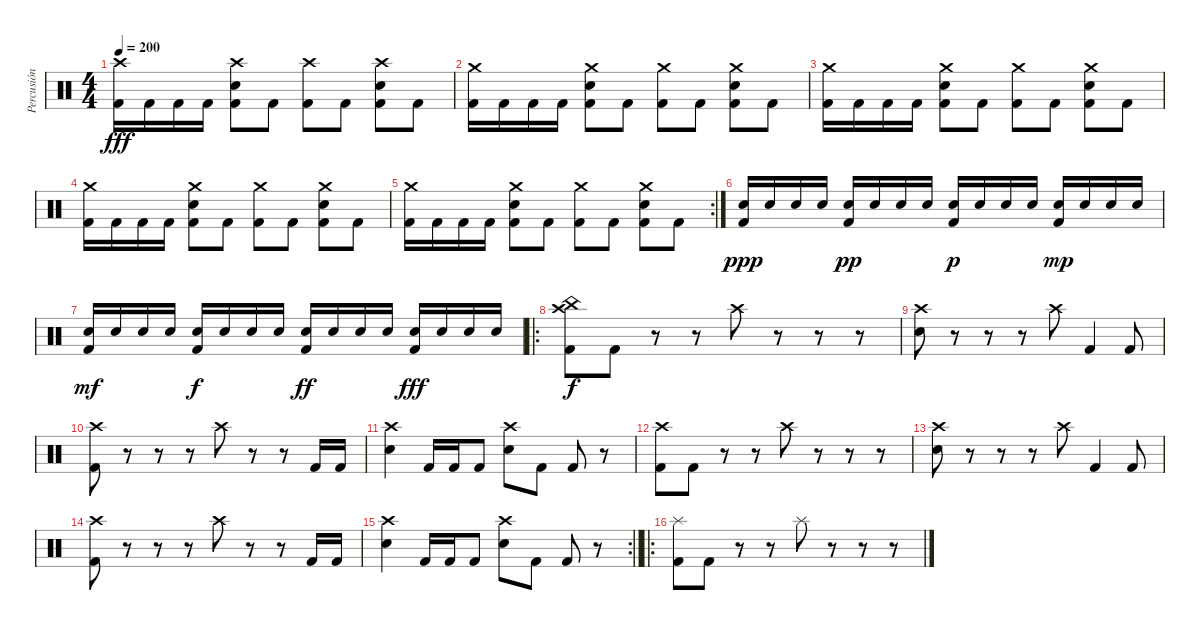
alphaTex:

\track ("Percusión" "Percusión") {instrument percussion}
\staff {score}
\articulation defaults
\ts (4 4)
\tempo 200
\clef neutral
\ks c
("Crash high (hit)" "Kick (hit) 2").16{dy fff} "Kick (hit) 2".16 "Kick (hit) 2".16 "Kick (hit) 2".16 ("Crash high (hit)" "Snare (hit) 2" "Kick (hit) 2").8 "Kick (hit) 2".8 ("Crash high (hit)" "Kick (hit) 2").8 "Kick (hit) 2".8 ("Crash high (hit)" "Snare (hit) 2" "Kick (hit) 2").8 "Kick (hit) 2".8 |
("Crash medium (hit)" "Kick (hit) 2").16 "Kick (hit) 2".16 "Kick (hit) 2".16 "Kick (hit) 2".16 ("Crash medium (hit)" "Snare (hit) 2" "Kick (hit) 2").8 "Kick (hit) 2".8 ("Crash medium (hit)" "Kick (hit) 2").8 "Kick (hit) 2".8 ("Crash medium (hit)" "Snare (hit) 2" "Kick (hit) 2").8 "Kick (hit) 2".8 |
("Crash medium (hit)" "Kick (hit) 2").16 "Kick (hit) 2".16 "Kick (hit) 2".16 "Kick (hit) 2".16 ("Crash medium (hit)" "Snare (hit) 2" "Kick (hit) 2").8 "Kick (hit) 2".8 ("Crash medium (hit)" "Kick (hit) 2").8 "Kick (hit) 2".8 ("Crash medium (hit)" "Snare (hit) 2" "Kick (hit) 2").8 "Kick (hit) 2".8 |
("Crash medium (hit)" "Kick (hit) 2").16 "Kick (hit) 2".16 "Kick (hit) 2".16 "Kick (hit) 2".16 ("Crash medium (hit)" "Snare (hit) 2" "Kick (hit) 2").8 "Kick (hit) 2".8 ("Crash medium (hit)" "Kick (hit) 2").8 "Kick (hit) 2".8 ("Crash medium (hit)" "Snare (hit) 2" "Kick (hit) 2").8 "Kick (hit) 2".8 |
\rc 2
("Crash medium (hit)" "Kick (hit) 2").16 "Kick (hit) 2".16 "Kick (hit) 2".16 "Kick (hit) 2".16 ("Crash medium (hit)" "Snare (hit) 2" "Kick (hit) 2").8 "Kick (hit) 2".8 ("Crash medium (hit)" "Kick (hit) 2").8 "Kick (hit) 2".8 ("Crash medium (hit)" "Snare (hit) 2" "Kick (hit) 2").8 "Kick (hit) 2".8 |
("Electric Snare (hit)" "Kick (hit) 2").16{dy ppp} "Electric Snare (hit)".16 "Electric Snare (hit)".16 "Electric Snare (hit)".16 ("Electric Snare (hit)" "Kick (hit) 2").16{dy pp} "Electric Snare (hit)".16 "Electric Snare (hit)".16 "Electric Snare (hit)".16 ("Electric Snare (hit)" "Kick (hit) 2").16{dy p} "Electric Snare (hit)".16 "Electric Snare (hit)".16 "Electric Snare (hit)".16 ("Electric Snare (hit)" "Kick (hit) 2").16{dy mp} "Electric Snare (hit)".16 "Electric Snare (hit)".16 "Electric Snare (hit)".16 |
("Electric Snare (hit)" "Kick (hit) 2").16{dy mf} "Electric Snare (hit)".16 "Electric Snare (hit)".16 "Electric Snare (hit)".16 ("Electric Snare (hit)" "Kick (hit) 2").16{dy f} "Electric Snare (hit)".16 "Electric Snare (hit)".16 "Electric Snare (hit)".16 ("Electric Snare (hit)" "Kick (hit) 2").16{dy ff} "Electric Snare (hit)".16 "Electric Snare (hit)".16 "Electric Snare (hit)".16 ("Electric Snare (hit)" "Kick (hit) 2").16{dy fff} "Electric Snare (hit)".16 "Electric Snare (hit)".16 "Electric Snare (hit)".16 |
\ro
("China (hit)" "Crash high (hit)" "Kick (hit) 2").8{dy f} "Kick (hit) 2".8 r.8 r.8 "Crash high (hit)".8 r.8 r.8 r.8 |
("Crash high (hit)" "Electric Snare (hit)").8 r.8 r.8 r.8 "Crash high (hit)".8 "Kick (hit) 2".4 "Kick (hit) 2".8 |
("Crash high (hit)" "Kick (hit) 2").8 r.8 r.8 r.8 "Crash high (hit)".8 r.8 r.8 "Kick (hit) 2".16 "Kick (hit) 2".16 |
("Crash high (hit)" "Electric Snare (hit)").4 "Kick (hit) 2".16 "Kick (hit) 2".16 "Kick (hit) 2".8 ("Crash high (hit)" "Electric Snare (hit)").8 "Kick (hit) 2".8 "Kick (hit) 2".8 r.8 |
("Crash high (hit)" "Kick (hit) 2").8 "Kick (hit) 2".8 r.8 r.8 "Crash high (hit)".8 r.8 r.8 r.8 |
("Crash high (hit)" "Electric Snare (hit)").8 r.8 r.8 r.8 "Crash high (hit)".8 "Kick (hit) 2".4 "Kick (hit) 2".8 |
("Crash high (hit)" "Kick (hit) 2").8 r.8 r.8 r.8 "Crash high (hit)".8 r.8 r.8 "Kick (hit) 2".16 "Kick (hit) 2".16 |
\rc 2
\barLineRight lightlight
("Crash high (hit)" "Electric Snare (hit)").4 "Kick (hit) 2".16 "Kick (hit) 2".16 "Kick (hit) 2".8 ("Crash high (hit)" "Electric Snare (hit)").8 "Kick (hit) 2".8 "Kick (hit) 2".8 r.8 |
\ro
("Splash (hit)" "Kick (hit) 2").8 "Kick (hit) 2".8 r.8 r.8 "Splash (hit)".8 r.8 r.8 r.8
